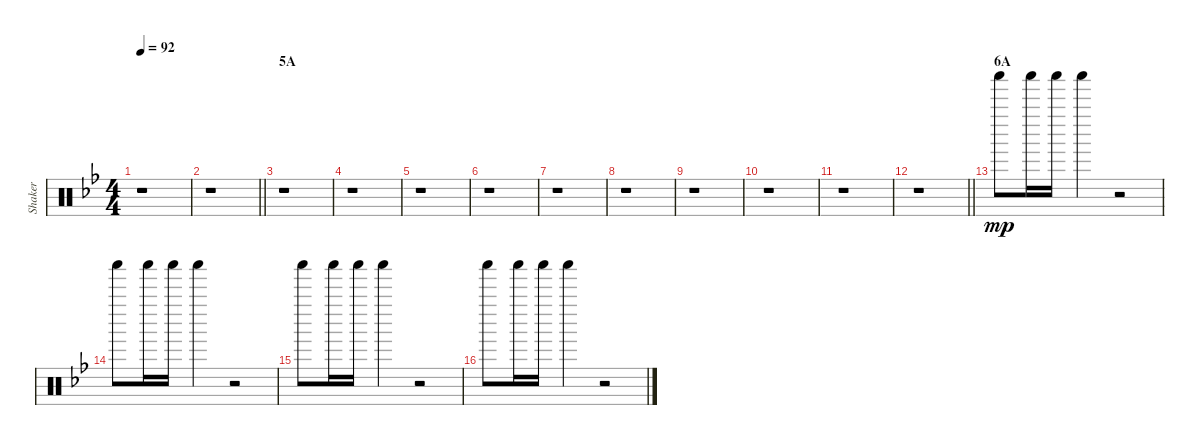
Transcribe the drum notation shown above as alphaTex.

\track ("Shaker" "Shaker") {instrument percussion}
\staff {score}
\articulation defaults
\ts (4 4)
\tempo 92
\clef neutral
\ks bb
r.1{dy mp} |
\barLineRight lightlight
r.1 |
\section ("" "5A")
r.1 |
r.1 |
r.1 |
r.1 |
r.1 |
r.1 |
r.1 |
r.1 |
r.1 |
\barLineRight lightlight
r.1 |
\section ("" "6A")
"Shaker (hit)".8 "Shaker (hit)".16 "Shaker (hit)".16 "Shaker (hit)".4 r.2 |
"Shaker (hit)".8 "Shaker (hit)".16 "Shaker (hit)".16 "Shaker (hit)".4 r.2 |
"Shaker (hit)".8 "Shaker (hit)".16 "Shaker (hit)".16 "Shaker (hit)".4 r.2 |
"Shaker (hit)".8 "Shaker (hit)".16 "Shaker (hit)".16 "Shaker (hit)".4 r.2
